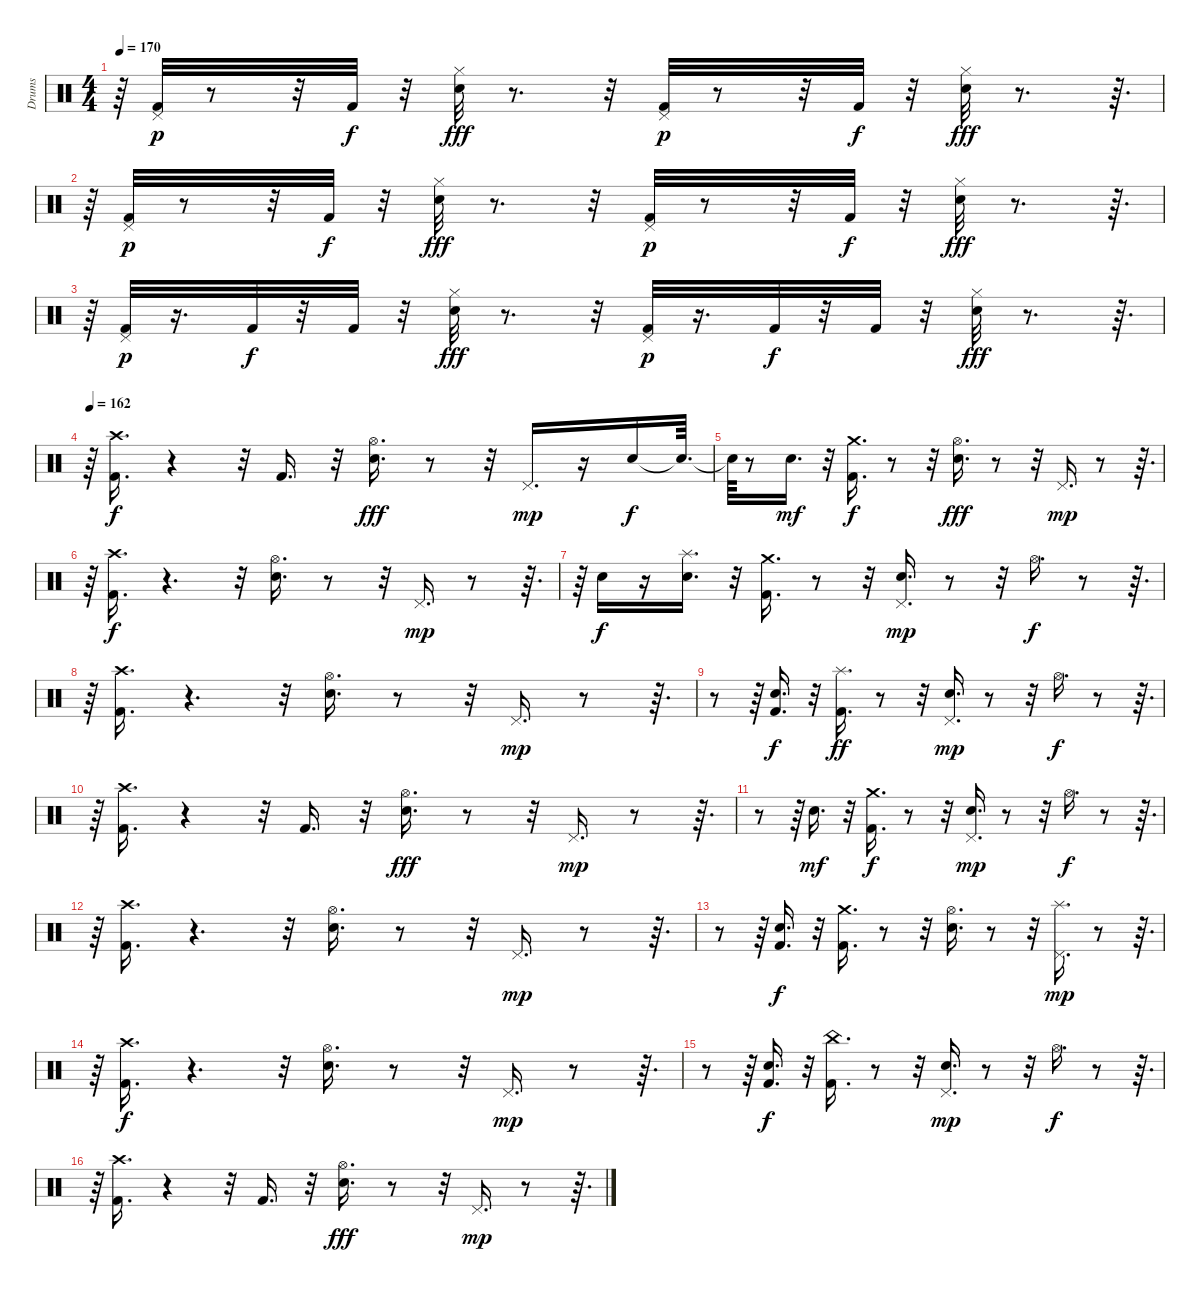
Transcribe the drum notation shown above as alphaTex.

\track ("Drums" "Drums") {instrument percussion}
\staff {score}
\articulation defaults
\ts (4 4)
\tempo 170
\clef neutral
\ks c
r.64{dy fff} ("Pedal Hi-Hat (hit)" "Kick (hit) 2").32{dy p} r.8 r.32 "Kick (hit) 2".32{dy f} r.32 ("Hi-Hat (closed)" "Snare (hit) 2").32{dy fff} r.8{d} r.32 ("Kick (hit) 2" "Pedal Hi-Hat (hit)").32{dy p} r.8 r.32 "Kick (hit) 2".32{dy f} r.32 ("Hi-Hat (closed)" "Snare (hit) 2").32{dy fff} r.8{d} r.64{d} |
r.64 ("Pedal Hi-Hat (hit)" "Kick (hit) 2").32{dy p} r.8 r.32 "Kick (hit) 2".32{dy f} r.32 ("Snare (hit) 2" "Hi-Hat (closed)").32{dy fff} r.8{d} r.32 ("Pedal Hi-Hat (hit)" "Kick (hit) 2").32{dy p} r.8 r.32 "Kick (hit) 2".32{dy f} r.32 ("Snare (hit) 2" "Hi-Hat (closed)").32{dy fff} r.8{d} r.64{d} |
r.64 ("Pedal Hi-Hat (hit)" "Kick (hit) 2").32{dy p} r.16{d} "Kick (hit) 2".32{dy f} r.32 "Kick (hit) 2".32 r.32 ("Hi-Hat (closed)" "Snare (hit) 2").32{dy fff} r.8{d} r.32 ("Kick (hit) 2" "Pedal Hi-Hat (hit)").32{dy p} r.16{d} "Kick (hit) 2".32{dy f} r.32 "Kick (hit) 2".32 r.32 ("Hi-Hat (closed)" "Snare (hit) 2").32{dy fff} r.8{d} r.64{d} |
\tempo 162
r.64 ("Kick (hit) 2" "Crash high (hit)").16{d dy f} r.4 r.32 "Kick (hit) 2".16{d} r.32 ("Hi-Hat (open)" "Snare (hit) 2").16{d dy fff} r.8 r.32 "Pedal Hi-Hat (hit)".16{d dy mp} r.16 "Electric Snare (hit)".16{dy f} "Snare (hit)"{t}.64{d} |
"Snare (hit)"{t}.64 r.8 "Snare (hit) 2".16{d dy mf} r.32 ("Kick (hit) 2" "Crash medium (hit)").16{d dy f} r.8 r.32 ("Snare (hit) 2" "Hi-Hat (open)").16{d dy fff} r.8 r.32 "Pedal Hi-Hat (hit)".16{d dy mp} r.8 r.64{d} |
r.64 ("Kick (hit) 2" "Crash high (hit)").16{d dy f} r.4{d} r.32 ("Hi-Hat (open)" "Snare (hit) 2").16{d} r.8 r.32 "Pedal Hi-Hat (hit)".16{d dy mp} r.8 r.64{d} |
r.64 "Snare (hit) 2".16{dy f} r.16 ("Splash (hit)" "Snare (hit) 2").16{d} r.32 ("Kick (hit) 2" "Crash medium (hit)").16{d} r.8 r.32 ("Pedal Hi-Hat (hit)" "Snare (hit) 2").16{d dy mp} r.8 r.32 "Hi-Hat (open)".16{d dy f} r.8 r.64{d} |
r.64 ("Kick (hit) 2" "Crash high (hit)").16{d} r.4{d} r.32 ("Hi-Hat (open)" "Snare (hit) 2").16{d} r.8 r.32 "Pedal Hi-Hat (hit)".16{d dy mp} r.8 r.64{d} |
r.8 r.64 ("Kick (hit) 2" "Snare (hit) 2").16{d dy f} r.32 ("Splash (hit)" "Kick (hit) 2").16{d dy ff} r.8 r.32 ("Pedal Hi-Hat (hit)" "Snare (hit) 2").16{d dy mp} r.8 r.32 "Hi-Hat (open)".16{d dy f} r.8 r.64{d} |
r.64 ("Crash high (hit)" "Kick (hit) 2").16{d} r.4 r.32 "Kick (hit) 2".16{d} r.32 ("Hi-Hat (open)" "Snare (hit) 2").16{d dy fff} r.8 r.32 "Pedal Hi-Hat (hit)".16{d dy mp} r.8 r.64{d} |
r.8 r.64 "Snare (hit) 2".16{d dy mf} r.32 ("Kick (hit) 2" "Crash medium (hit)").16{d dy f} r.8 r.32 ("Snare (hit) 2" "Pedal Hi-Hat (hit)").16{d dy mp} r.8 r.32 "Hi-Hat (open)".16{d dy f} r.8 r.64{d} |
r.64 ("Kick (hit) 2" "Crash high (hit)").16{d} r.4{d} r.32 ("Hi-Hat (open)" "Snare (hit) 2").16{d} r.8 r.32 "Pedal Hi-Hat (hit)".16{d dy mp} r.8 r.64{d} |
r.8 r.64 ("Kick (hit) 2" "Snare (hit) 2").16{d dy f} r.32 ("Crash medium (hit)" "Kick (hit) 2").16{d} r.8 r.32 ("Hi-Hat (open)" "Snare (hit) 2").16{d} r.8 r.32 ("Splash (hit)" "Pedal Hi-Hat (hit)").16{d dy mp} r.8 r.64{d} |
r.64 ("Kick (hit) 2" "Crash high (hit)").16{d dy f} r.4{d} r.32 ("Hi-Hat (open)" "Snare (hit) 2").16{d} r.8 r.32 "Pedal Hi-Hat (hit)".16{d dy mp} r.8 r.64{d} |
r.8 r.64 ("Snare (hit) 2" "Kick (hit) 2").16{d dy f} r.32 ("China (hit)" "Kick (hit) 2").16{d} r.8 r.32 ("Pedal Hi-Hat (hit)" "Snare (hit) 2").16{d dy mp} r.8 r.32 "Hi-Hat (open)".16{d dy f} r.8 r.64{d} |
r.64 ("Crash high (hit)" "Kick (hit) 2").16{d} r.4 r.32 "Kick (hit) 2".16{d} r.32 ("Snare (hit) 2" "Hi-Hat (open)").16{d dy fff} r.8 r.32 "Pedal Hi-Hat (hit)".16{d dy mp} r.8 r.64{d}
